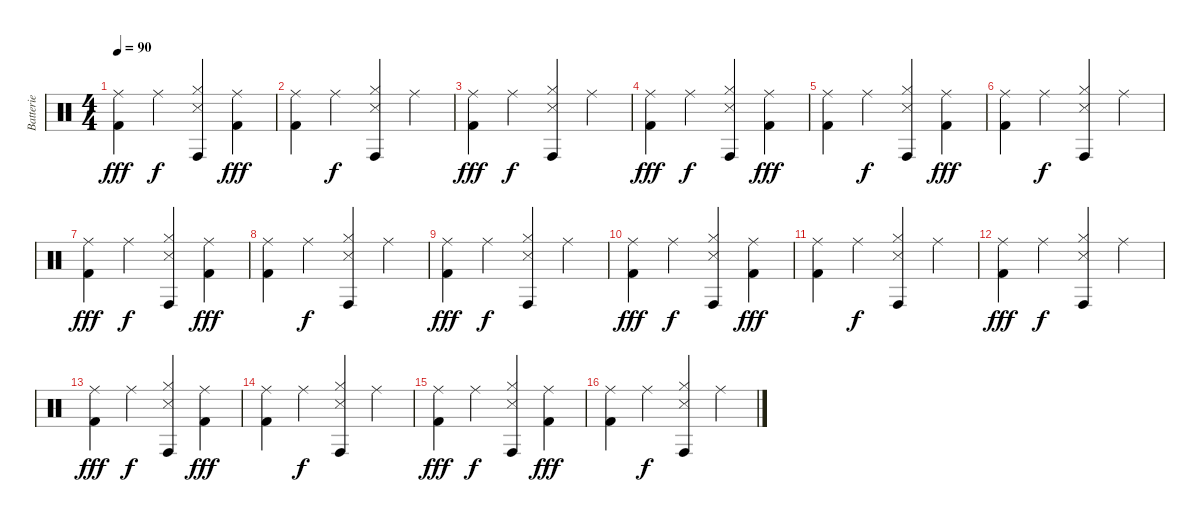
\track ("Batterie" "Batterie") {instrument percussion}
\staff {score}
\articulation defaults
\ts (4 4)
\tempo 90
\clef neutral
\ks c
("Ride (middle)" "Kick (hit) 2").4{dy fff} "Ride (middle)".4{dy f} ("Snare (side stick) 3" "Hi-Hat (closed)" "Conga high (hit)").4 ("Ride (middle)" "Kick (hit) 2").4{dy fff} |
("Ride (middle)" "Kick (hit) 2").4 "Ride (middle)".4{dy f} ("Snare (side stick) 3" "Hi-Hat (closed)" "Conga high (hit)").4 "Ride (middle)".4 |
("Ride (middle)" "Kick (hit) 2").4{dy fff} "Ride (middle)".4{dy f} ("Snare (side stick) 3" "Hi-Hat (closed)" "Conga high (hit)").4 "Ride (middle)".4 |
("Ride (middle)" "Kick (hit) 2").4{dy fff} "Ride (middle)".4{dy f} ("Snare (side stick) 3" "Hi-Hat (closed)" "Conga high (hit)").4 ("Ride (middle)" "Kick (hit) 2").4{dy fff} |
("Ride (middle)" "Kick (hit) 2").4 "Ride (middle)".4{dy f} ("Snare (side stick) 3" "Hi-Hat (closed)" "Conga high (hit)").4 ("Ride (middle)" "Kick (hit) 2").4{dy fff} |
("Ride (middle)" "Kick (hit) 2").4 "Ride (middle)".4{dy f} ("Snare (side stick) 3" "Hi-Hat (closed)" "Conga high (hit)").4 "Ride (middle)".4 |
("Ride (middle)" "Kick (hit) 2").4{dy fff} "Ride (middle)".4{dy f} ("Snare (side stick) 3" "Hi-Hat (closed)" "Conga high (hit)").4 ("Ride (middle)" "Kick (hit) 2").4{dy fff} |
("Ride (middle)" "Kick (hit) 2").4 "Ride (middle)".4{dy f} ("Snare (side stick) 3" "Hi-Hat (closed)" "Conga high (hit)").4 "Ride (middle)".4 |
("Ride (middle)" "Kick (hit) 2").4{dy fff} "Ride (middle)".4{dy f} ("Snare (side stick) 3" "Hi-Hat (closed)" "Conga high (hit)").4 "Ride (middle)".4 |
("Ride (middle)" "Kick (hit) 2").4{dy fff} "Ride (middle)".4{dy f} ("Snare (side stick) 3" "Hi-Hat (closed)" "Conga high (hit)").4 ("Ride (middle)" "Kick (hit) 2").4{dy fff} |
("Ride (middle)" "Kick (hit) 2").4 "Ride (middle)".4{dy f} ("Snare (side stick) 3" "Hi-Hat (closed)" "Conga high (hit)").4 "Ride (middle)".4 |
("Ride (middle)" "Kick (hit) 2").4{dy fff} "Ride (middle)".4{dy f} ("Snare (side stick) 3" "Hi-Hat (closed)" "Conga high (hit)").4 "Ride (middle)".4 |
("Ride (middle)" "Kick (hit) 2").4{dy fff} "Ride (middle)".4{dy f} ("Snare (side stick) 3" "Hi-Hat (closed)" "Conga high (hit)").4 ("Ride (middle)" "Kick (hit) 2").4{dy fff} |
("Ride (middle)" "Kick (hit) 2").4 "Ride (middle)".4{dy f} ("Snare (side stick) 3" "Hi-Hat (closed)" "Conga high (hit)").4 "Ride (middle)".4 |
("Ride (middle)" "Kick (hit) 2").4{dy fff} "Ride (middle)".4{dy f} ("Snare (side stick) 3" "Hi-Hat (closed)" "Conga high (hit)").4 ("Ride (middle)" "Kick (hit) 2").4{dy fff} |
("Ride (middle)" "Kick (hit) 2").4 "Ride (middle)".4{dy f} ("Snare (side stick) 3" "Hi-Hat (closed)" "Conga high (hit)").4 "Ride (middle)".4
